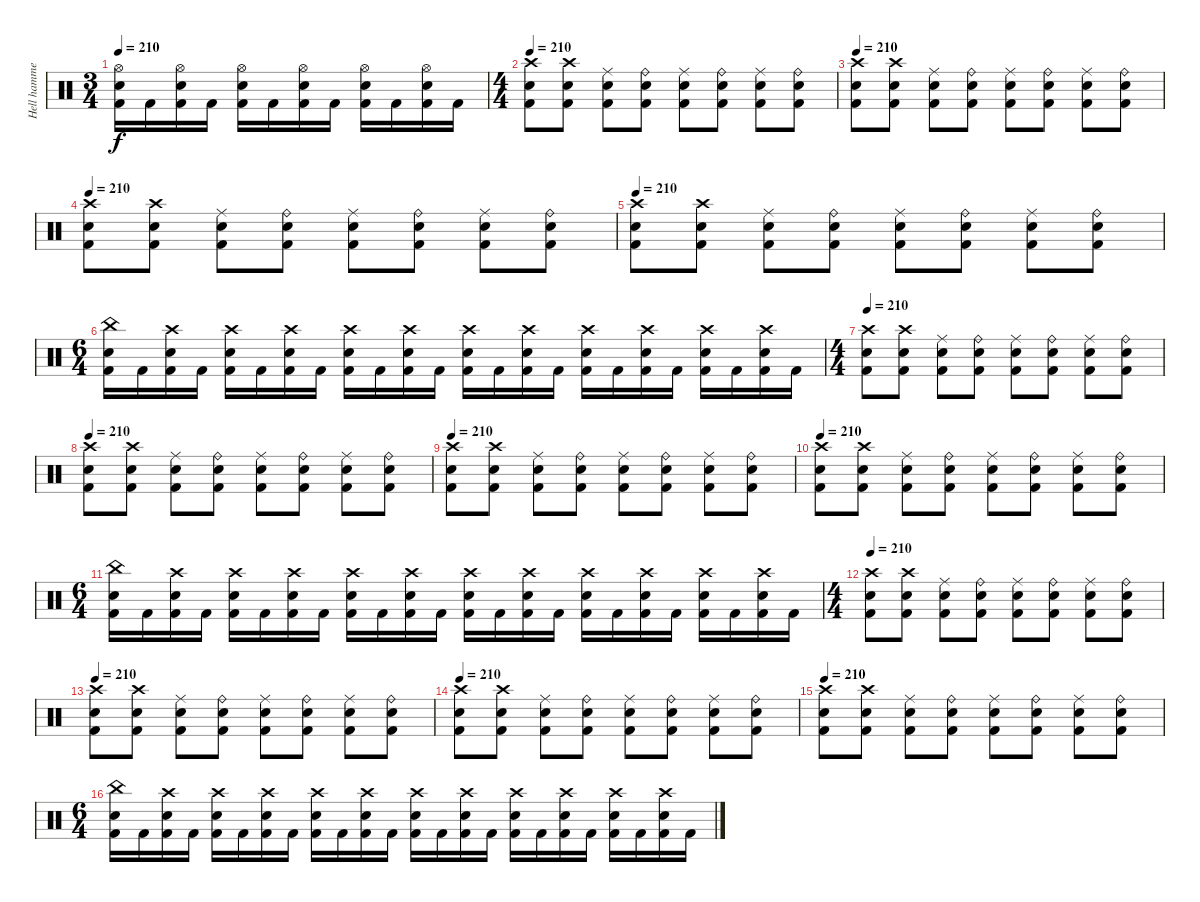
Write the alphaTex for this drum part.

\track ("Hell hammers" "Hell hamme") {instrument percussion}
\staff {score}
\articulation defaults
\ts (3 4)
\tempo 210
\clef neutral
\ks c
("Hi-Hat (open)" "Snare (hit) 2" "Kick (hit) 2").16{dy f} "Kick (hit) 2".16 ("Hi-Hat (open)" "Snare (hit) 2" "Kick (hit) 2").16 "Kick (hit) 2".16 ("Hi-Hat (open)" "Snare (hit) 2" "Kick (hit) 2").16 "Kick (hit) 2".16 ("Hi-Hat (open)" "Snare (hit) 2" "Kick (hit) 2").16 "Kick (hit) 2".16 ("Hi-Hat (open)" "Snare (hit) 2" "Kick (hit) 2").16 "Kick (hit) 2".16 ("Hi-Hat (open)" "Snare (hit) 2" "Kick (hit) 2").16 "Kick (hit) 2".16 |
\ts (4 4)
\tempo 210
("Crash high (hit)" "Snare (hit) 2" "Kick (hit) 2").8 ("Crash high (hit)" "Snare (hit) 2" "Kick (hit) 2").8 ("Ride (middle)" "Snare (hit) 2" "Kick (hit) 2").8 ("Ride (bell)" "Snare (hit) 2" "Kick (hit) 2").8 ("Ride (middle)" "Snare (hit) 2" "Kick (hit) 2").8 ("Ride (bell)" "Snare (hit) 2" "Kick (hit) 2").8 ("Ride (middle)" "Snare (hit) 2" "Kick (hit) 2").8 ("Ride (bell)" "Snare (hit) 2" "Kick (hit) 2").8 |
\tempo 210
("Crash high (hit)" "Snare (hit) 2" "Kick (hit) 2").8 ("Crash high (hit)" "Snare (hit) 2" "Kick (hit) 2").8 ("Ride (middle)" "Snare (hit) 2" "Kick (hit) 2").8 ("Ride (bell)" "Snare (hit) 2" "Kick (hit) 2").8 ("Ride (middle)" "Snare (hit) 2" "Kick (hit) 2").8 ("Ride (bell)" "Snare (hit) 2" "Kick (hit) 2").8 ("Ride (middle)" "Snare (hit) 2" "Kick (hit) 2").8 ("Ride (bell)" "Snare (hit) 2" "Kick (hit) 2").8 |
\tempo 210
("Crash high (hit)" "Snare (hit) 2" "Kick (hit) 2").8 ("Crash high (hit)" "Snare (hit) 2" "Kick (hit) 2").8 ("Ride (middle)" "Snare (hit) 2" "Kick (hit) 2").8 ("Ride (bell)" "Snare (hit) 2" "Kick (hit) 2").8 ("Ride (middle)" "Snare (hit) 2" "Kick (hit) 2").8 ("Ride (bell)" "Snare (hit) 2" "Kick (hit) 2").8 ("Ride (middle)" "Snare (hit) 2" "Kick (hit) 2").8 ("Ride (bell)" "Snare (hit) 2" "Kick (hit) 2").8 |
\tempo 210
("Crash high (hit)" "Snare (hit) 2" "Kick (hit) 2").8 ("Crash high (hit)" "Snare (hit) 2" "Kick (hit) 2").8 ("Ride (middle)" "Snare (hit) 2" "Kick (hit) 2").8 ("Ride (bell)" "Snare (hit) 2" "Kick (hit) 2").8 ("Ride (middle)" "Snare (hit) 2" "Kick (hit) 2").8 ("Ride (bell)" "Snare (hit) 2" "Kick (hit) 2").8 ("Ride (middle)" "Snare (hit) 2" "Kick (hit) 2").8 ("Ride (bell)" "Snare (hit) 2" "Kick (hit) 2").8 |
\ts (6 4)
("China (hit)" "Snare (hit) 2" "Kick (hit) 2").16 "Kick (hit) 2".16 ("Crash high (hit)" "Snare (hit) 2" "Kick (hit) 2").16 "Kick (hit) 2".16 ("Crash high (hit)" "Snare (hit) 2" "Kick (hit) 2").16 "Kick (hit) 2".16 ("Crash high (hit)" "Snare (hit) 2" "Kick (hit) 2").16 "Kick (hit) 2".16 ("Crash high (hit)" "Snare (hit) 2" "Kick (hit) 2").16 "Kick (hit) 2".16 ("Crash high (hit)" "Snare (hit) 2" "Kick (hit) 2").16 "Kick (hit) 2".16 ("Crash high (hit)" "Snare (hit) 2" "Kick (hit) 2").16 "Kick (hit) 2".16 ("Crash high (hit)" "Snare (hit) 2" "Kick (hit) 2").16 "Kick (hit) 2".16 ("Crash high (hit)" "Snare (hit) 2" "Kick (hit) 2").16 "Kick (hit) 2".16 ("Crash high (hit)" "Snare (hit) 2" "Kick (hit) 2").16 "Kick (hit) 2".16 ("Crash high (hit)" "Snare (hit) 2" "Kick (hit) 2").16 "Kick (hit) 2".16 ("Crash high (hit)" "Snare (hit) 2" "Kick (hit) 2").16 "Kick (hit) 2".16 |
\ts (4 4)
\tempo 210
("Crash high (hit)" "Snare (hit) 2" "Kick (hit) 2").8 ("Crash high (hit)" "Snare (hit) 2" "Kick (hit) 2").8 ("Ride (middle)" "Snare (hit) 2" "Kick (hit) 2").8 ("Ride (bell)" "Snare (hit) 2" "Kick (hit) 2").8 ("Ride (middle)" "Snare (hit) 2" "Kick (hit) 2").8 ("Ride (bell)" "Snare (hit) 2" "Kick (hit) 2").8 ("Ride (middle)" "Snare (hit) 2" "Kick (hit) 2").8 ("Ride (bell)" "Snare (hit) 2" "Kick (hit) 2").8 |
\tempo 210
("Crash high (hit)" "Snare (hit) 2" "Kick (hit) 2").8 ("Crash high (hit)" "Snare (hit) 2" "Kick (hit) 2").8 ("Ride (middle)" "Snare (hit) 2" "Kick (hit) 2").8 ("Ride (bell)" "Snare (hit) 2" "Kick (hit) 2").8 ("Ride (middle)" "Snare (hit) 2" "Kick (hit) 2").8 ("Ride (bell)" "Snare (hit) 2" "Kick (hit) 2").8 ("Ride (middle)" "Snare (hit) 2" "Kick (hit) 2").8 ("Ride (bell)" "Snare (hit) 2" "Kick (hit) 2").8 |
\tempo 210
("Crash high (hit)" "Snare (hit) 2" "Kick (hit) 2").8 ("Crash high (hit)" "Snare (hit) 2" "Kick (hit) 2").8 ("Ride (middle)" "Snare (hit) 2" "Kick (hit) 2").8 ("Ride (bell)" "Snare (hit) 2" "Kick (hit) 2").8 ("Ride (middle)" "Snare (hit) 2" "Kick (hit) 2").8 ("Ride (bell)" "Snare (hit) 2" "Kick (hit) 2").8 ("Ride (middle)" "Snare (hit) 2" "Kick (hit) 2").8 ("Ride (bell)" "Snare (hit) 2" "Kick (hit) 2").8 |
\tempo 210
("Crash high (hit)" "Snare (hit) 2" "Kick (hit) 2").8 ("Crash high (hit)" "Snare (hit) 2" "Kick (hit) 2").8 ("Ride (middle)" "Snare (hit) 2" "Kick (hit) 2").8 ("Ride (bell)" "Snare (hit) 2" "Kick (hit) 2").8 ("Ride (middle)" "Snare (hit) 2" "Kick (hit) 2").8 ("Ride (bell)" "Snare (hit) 2" "Kick (hit) 2").8 ("Ride (middle)" "Snare (hit) 2" "Kick (hit) 2").8 ("Ride (bell)" "Snare (hit) 2" "Kick (hit) 2").8 |
\ts (6 4)
("China (hit)" "Snare (hit) 2" "Kick (hit) 2").16 "Kick (hit) 2".16 ("Crash high (hit)" "Snare (hit) 2" "Kick (hit) 2").16 "Kick (hit) 2".16 ("Crash high (hit)" "Snare (hit) 2" "Kick (hit) 2").16 "Kick (hit) 2".16 ("Crash high (hit)" "Snare (hit) 2" "Kick (hit) 2").16 "Kick (hit) 2".16 ("Crash high (hit)" "Snare (hit) 2" "Kick (hit) 2").16 "Kick (hit) 2".16 ("Crash high (hit)" "Snare (hit) 2" "Kick (hit) 2").16 "Kick (hit) 2".16 ("Crash high (hit)" "Snare (hit) 2" "Kick (hit) 2").16 "Kick (hit) 2".16 ("Crash high (hit)" "Snare (hit) 2" "Kick (hit) 2").16 "Kick (hit) 2".16 ("Crash high (hit)" "Snare (hit) 2" "Kick (hit) 2").16 "Kick (hit) 2".16 ("Crash high (hit)" "Snare (hit) 2" "Kick (hit) 2").16 "Kick (hit) 2".16 ("Crash high (hit)" "Snare (hit) 2" "Kick (hit) 2").16 "Kick (hit) 2".16 ("Crash high (hit)" "Snare (hit) 2" "Kick (hit) 2").16 "Kick (hit) 2".16 |
\ts (4 4)
\tempo 210
("Crash high (hit)" "Snare (hit) 2" "Kick (hit) 2").8 ("Crash high (hit)" "Snare (hit) 2" "Kick (hit) 2").8 ("Ride (middle)" "Snare (hit) 2" "Kick (hit) 2").8 ("Ride (bell)" "Snare (hit) 2" "Kick (hit) 2").8 ("Ride (middle)" "Snare (hit) 2" "Kick (hit) 2").8 ("Ride (bell)" "Snare (hit) 2" "Kick (hit) 2").8 ("Ride (middle)" "Snare (hit) 2" "Kick (hit) 2").8 ("Ride (bell)" "Snare (hit) 2" "Kick (hit) 2").8 |
\tempo 210
("Crash high (hit)" "Snare (hit) 2" "Kick (hit) 2").8 ("Crash high (hit)" "Snare (hit) 2" "Kick (hit) 2").8 ("Ride (middle)" "Snare (hit) 2" "Kick (hit) 2").8 ("Ride (bell)" "Snare (hit) 2" "Kick (hit) 2").8 ("Ride (middle)" "Snare (hit) 2" "Kick (hit) 2").8 ("Ride (bell)" "Snare (hit) 2" "Kick (hit) 2").8 ("Ride (middle)" "Snare (hit) 2" "Kick (hit) 2").8 ("Ride (bell)" "Snare (hit) 2" "Kick (hit) 2").8 |
\tempo 210
("Crash high (hit)" "Snare (hit) 2" "Kick (hit) 2").8 ("Crash high (hit)" "Snare (hit) 2" "Kick (hit) 2").8 ("Ride (middle)" "Snare (hit) 2" "Kick (hit) 2").8 ("Ride (bell)" "Snare (hit) 2" "Kick (hit) 2").8 ("Ride (middle)" "Snare (hit) 2" "Kick (hit) 2").8 ("Ride (bell)" "Snare (hit) 2" "Kick (hit) 2").8 ("Ride (middle)" "Snare (hit) 2" "Kick (hit) 2").8 ("Ride (bell)" "Snare (hit) 2" "Kick (hit) 2").8 |
\tempo 210
("Crash high (hit)" "Snare (hit) 2" "Kick (hit) 2").8 ("Crash high (hit)" "Snare (hit) 2" "Kick (hit) 2").8 ("Ride (middle)" "Snare (hit) 2" "Kick (hit) 2").8 ("Ride (bell)" "Snare (hit) 2" "Kick (hit) 2").8 ("Ride (middle)" "Snare (hit) 2" "Kick (hit) 2").8 ("Ride (bell)" "Snare (hit) 2" "Kick (hit) 2").8 ("Ride (middle)" "Snare (hit) 2" "Kick (hit) 2").8 ("Ride (bell)" "Snare (hit) 2" "Kick (hit) 2").8 |
\ts (6 4)
("China (hit)" "Snare (hit) 2" "Kick (hit) 2").16 "Kick (hit) 2".16 ("Crash high (hit)" "Snare (hit) 2" "Kick (hit) 2").16 "Kick (hit) 2".16 ("Crash high (hit)" "Snare (hit) 2" "Kick (hit) 2").16 "Kick (hit) 2".16 ("Crash high (hit)" "Snare (hit) 2" "Kick (hit) 2").16 "Kick (hit) 2".16 ("Crash high (hit)" "Snare (hit) 2" "Kick (hit) 2").16 "Kick (hit) 2".16 ("Crash high (hit)" "Snare (hit) 2" "Kick (hit) 2").16 "Kick (hit) 2".16 ("Crash high (hit)" "Snare (hit) 2" "Kick (hit) 2").16 "Kick (hit) 2".16 ("Crash high (hit)" "Snare (hit) 2" "Kick (hit) 2").16 "Kick (hit) 2".16 ("Crash high (hit)" "Snare (hit) 2" "Kick (hit) 2").16 "Kick (hit) 2".16 ("Crash high (hit)" "Snare (hit) 2" "Kick (hit) 2").16 "Kick (hit) 2".16 ("Crash high (hit)" "Snare (hit) 2" "Kick (hit) 2").16 "Kick (hit) 2".16 ("Crash high (hit)" "Snare (hit) 2" "Kick (hit) 2").16 "Kick (hit) 2".16
